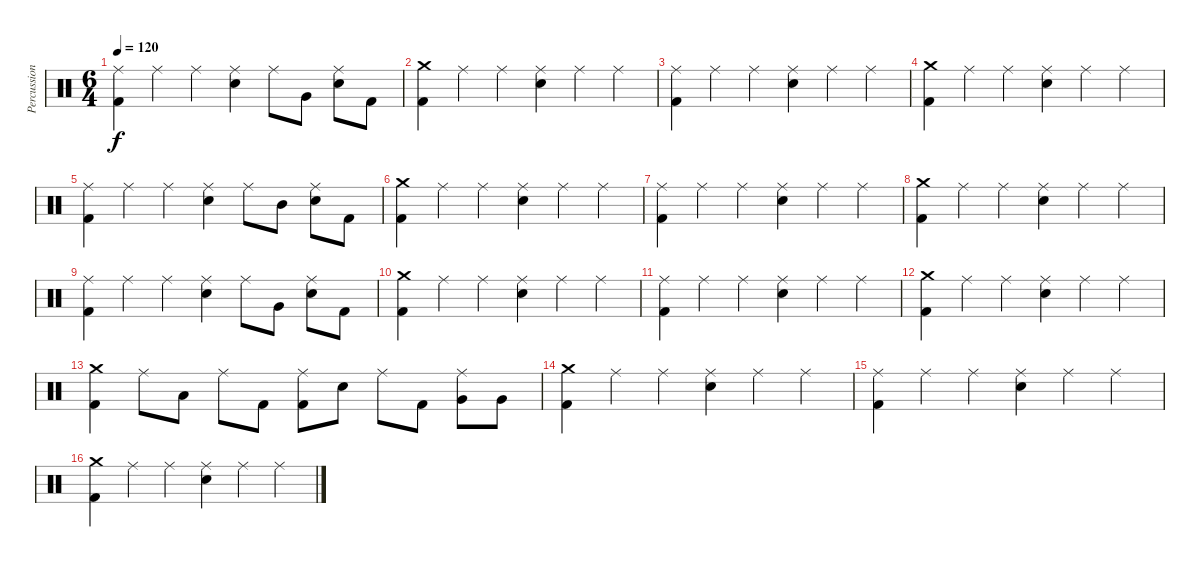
\track ("Percussion" "Percussion") {instrument percussion}
\staff {score}
\articulation defaults
\ts (6 4)
\tempo 120
\clef neutral
\ks c
("Ride (middle)" "Kick (hit) 2").4{dy f} "Ride (middle)".4 "Ride (middle)".4 ("Ride (middle)" "Snare (hit) 2").4 "Ride (middle)".8 "Very Low Tom (hit)".8 ("Ride (middle)" "Snare (hit) 2").8 "Kick (hit) 2".8 |
("Crash medium (hit)" "Kick (hit) 2").4 "Ride (middle)".4 "Ride (middle)".4 ("Ride (middle)" "Snare (hit) 2").4 "Ride (middle)".4 "Ride (middle)".4 |
("Ride (middle)" "Kick (hit) 2").4 "Ride (middle)".4 "Ride (middle)".4 ("Ride (middle)" "Snare (hit) 2").4 "Ride (middle)".4 "Ride (middle)".4 |
("Crash medium (hit)" "Kick (hit) 2").4 "Ride (middle)".4 "Ride (middle)".4 ("Ride (middle)" "Snare (hit) 2").4 "Ride (middle)".4 "Ride (middle)".4 |
("Ride (middle)" "Kick (hit) 2").4 "Ride (middle)".4 "Ride (middle)".4 ("Ride (middle)" "Snare (hit) 2").4 "Ride (middle)".8 "Mid Tom (hit)".8 ("Ride (middle)" "Snare (hit) 2").8 "Kick (hit) 2".8 |
("Crash medium (hit)" "Kick (hit) 2").4 "Ride (middle)".4 "Ride (middle)".4 ("Ride (middle)" "Snare (hit) 2").4 "Ride (middle)".4 "Ride (middle)".4 |
("Ride (middle)" "Kick (hit) 2").4 "Ride (middle)".4 "Ride (middle)".4 ("Ride (middle)" "Snare (hit) 2").4 "Ride (middle)".4 "Ride (middle)".4 |
("Crash medium (hit)" "Kick (hit) 2").4 "Ride (middle)".4 "Ride (middle)".4 ("Ride (middle)" "Snare (hit) 2").4 "Ride (middle)".4 "Ride (middle)".4 |
("Ride (middle)" "Kick (hit) 2").4 "Ride (middle)".4 "Ride (middle)".4 ("Ride (middle)" "Snare (hit) 2").4 "Ride (middle)".8 "Very Low Tom (hit)".8 ("Ride (middle)" "Snare (hit) 2").8 "Kick (hit) 2".8 |
("Crash medium (hit)" "Kick (hit) 2").4 "Ride (middle)".4 "Ride (middle)".4 ("Ride (middle)" "Snare (hit) 2").4 "Ride (middle)".4 "Ride (middle)".4 |
("Ride (middle)" "Kick (hit) 2").4 "Ride (middle)".4 "Ride (middle)".4 ("Ride (middle)" "Snare (hit) 2").4 "Ride (middle)".4 "Ride (middle)".4 |
("Crash medium (hit)" "Kick (hit) 2").4 "Ride (middle)".4 "Ride (middle)".4 ("Ride (middle)" "Snare (hit) 2").4 "Ride (middle)".4 "Ride (middle)".4 |
("Crash medium (hit)" "Kick (hit) 2").4 "Ride (middle)".8 "Low Tom (hit)".8 "Ride (middle)".8 "Kick (hit) 2".8 ("Ride (middle)" "Kick (hit) 2").8 "Snare (hit) 2".8 "Ride (middle)".8 "Kick (hit) 2".8 ("Ride (middle)" "Very Low Tom (hit)").8 "Very Low Tom (hit)".8 |
("Crash medium (hit)" "Kick (hit) 2").4 "Ride (middle)".4 "Ride (middle)".4 ("Ride (middle)" "Snare (hit) 2").4 "Ride (middle)".4 "Ride (middle)".4 |
("Ride (middle)" "Kick (hit) 2").4 "Ride (middle)".4 "Ride (middle)".4 ("Ride (middle)" "Snare (hit) 2").4 "Ride (middle)".4 "Ride (middle)".4 |
("Crash medium (hit)" "Kick (hit) 2").4 "Ride (middle)".4 "Ride (middle)".4 ("Ride (middle)" "Snare (hit) 2").4 "Ride (middle)".4 "Ride (middle)".4
